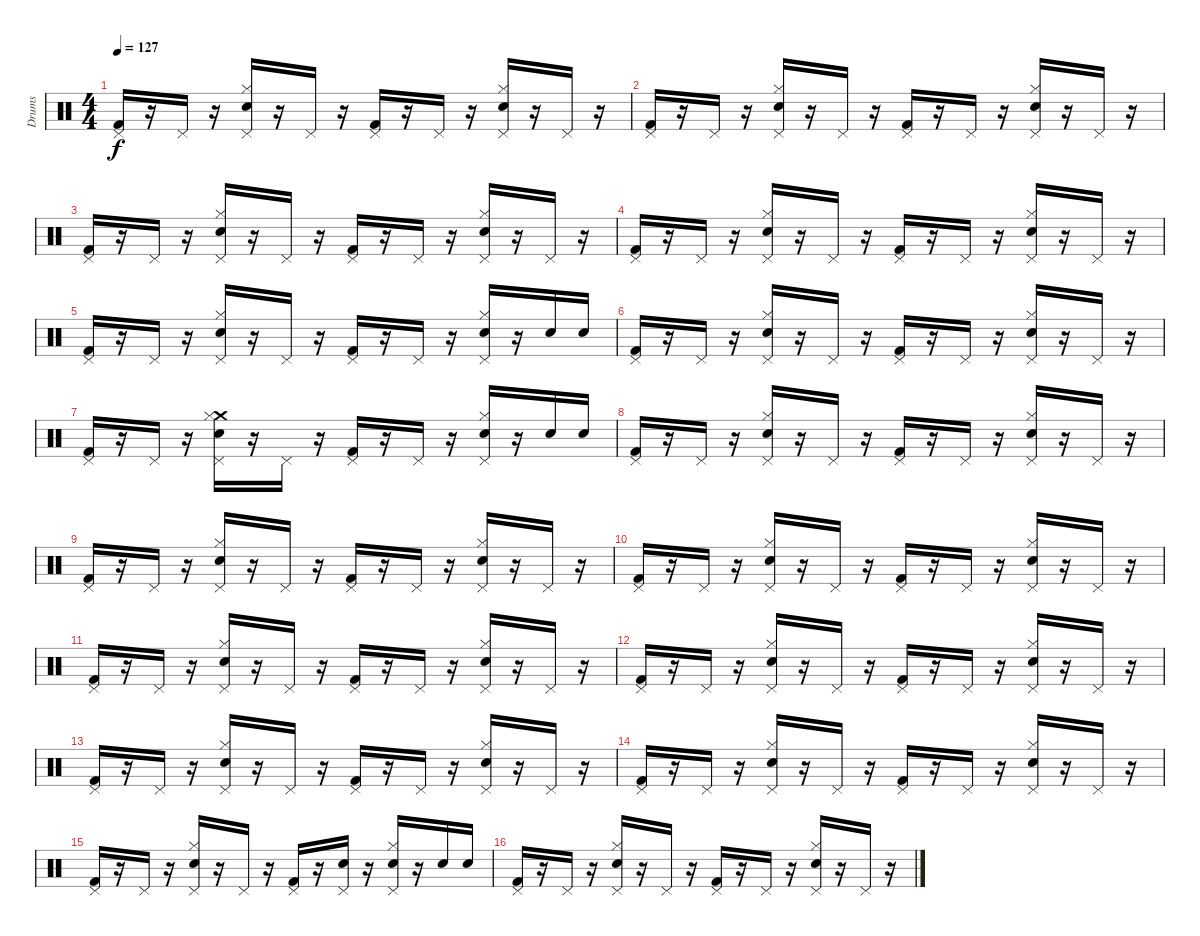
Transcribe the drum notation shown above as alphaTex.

\track ("Drums" "Drums") {instrument percussion}
\staff {score}
\articulation defaults
\ts (4 4)
\tempo 127
\clef neutral
\ks c
("Pedal Hi-Hat (hit)" "Kick (hit) 2").16{dy f} r.16 "Pedal Hi-Hat (hit)".16 r.16 ("Hi-Hat (closed)" "Pedal Hi-Hat (hit)" "Electric Snare (hit)").16 r.16 "Pedal Hi-Hat (hit)".16 r.16 ("Pedal Hi-Hat (hit)" "Kick (hit) 2").16 r.16 "Pedal Hi-Hat (hit)".16 r.16 ("Hi-Hat (closed)" "Pedal Hi-Hat (hit)" "Electric Snare (hit)").16 r.16 "Pedal Hi-Hat (hit)".16 r.16 |
("Pedal Hi-Hat (hit)" "Kick (hit) 2").16 r.16 "Pedal Hi-Hat (hit)".16 r.16 ("Hi-Hat (closed)" "Pedal Hi-Hat (hit)" "Electric Snare (hit)").16 r.16 "Pedal Hi-Hat (hit)".16 r.16 ("Pedal Hi-Hat (hit)" "Kick (hit) 2").16 r.16 "Pedal Hi-Hat (hit)".16 r.16 ("Hi-Hat (closed)" "Pedal Hi-Hat (hit)" "Electric Snare (hit)").16 r.16 "Pedal Hi-Hat (hit)".16 r.16 |
("Pedal Hi-Hat (hit)" "Kick (hit) 2").16 r.16 "Pedal Hi-Hat (hit)".16 r.16 ("Hi-Hat (closed)" "Pedal Hi-Hat (hit)" "Electric Snare (hit)").16 r.16 "Pedal Hi-Hat (hit)".16 r.16 ("Pedal Hi-Hat (hit)" "Kick (hit) 2").16 r.16 "Pedal Hi-Hat (hit)".16 r.16 ("Hi-Hat (closed)" "Pedal Hi-Hat (hit)" "Electric Snare (hit)").16 r.16 "Pedal Hi-Hat (hit)".16 r.16 |
("Pedal Hi-Hat (hit)" "Kick (hit) 2").16 r.16 "Pedal Hi-Hat (hit)".16 r.16 ("Hi-Hat (closed)" "Pedal Hi-Hat (hit)" "Electric Snare (hit)").16 r.16 "Pedal Hi-Hat (hit)".16 r.16 ("Pedal Hi-Hat (hit)" "Kick (hit) 2").16 r.16 "Pedal Hi-Hat (hit)".16 r.16 ("Hi-Hat (closed)" "Pedal Hi-Hat (hit)" "Electric Snare (hit)").16 r.16 "Pedal Hi-Hat (hit)".16 r.16 |
("Pedal Hi-Hat (hit)" "Kick (hit) 2").16 r.16 "Pedal Hi-Hat (hit)".16 r.16 ("Hi-Hat (closed)" "Pedal Hi-Hat (hit)" "Electric Snare (hit)").16 r.16 "Pedal Hi-Hat (hit)".16 r.16 ("Pedal Hi-Hat (hit)" "Kick (hit) 2").16 r.16 "Pedal Hi-Hat (hit)".16 r.16 ("Hi-Hat (closed)" "Pedal Hi-Hat (hit)" "Electric Snare (hit)").16 r.16 "Electric Snare (hit)".16 "Electric Snare (hit)".16 |
("Pedal Hi-Hat (hit)" "Kick (hit) 2").16 r.16 "Pedal Hi-Hat (hit)".16 r.16 ("Hi-Hat (closed)" "Pedal Hi-Hat (hit)" "Electric Snare (hit)").16 r.16 "Pedal Hi-Hat (hit)".16 r.16 ("Pedal Hi-Hat (hit)" "Kick (hit) 2").16 r.16 "Pedal Hi-Hat (hit)".16 r.16 ("Hi-Hat (closed)" "Pedal Hi-Hat (hit)" "Electric Snare (hit)").16 r.16 "Pedal Hi-Hat (hit)".16 r.16 |
("Pedal Hi-Hat (hit)" "Kick (hit) 2").16 r.16 "Pedal Hi-Hat (hit)".16 r.16 ("Crash medium (hit)" "Hi-Hat (closed)" "Pedal Hi-Hat (hit)" "Electric Snare (hit)").16 r.16 "Pedal Hi-Hat (hit)".16 r.16 ("Pedal Hi-Hat (hit)" "Kick (hit) 2").16 r.16 "Pedal Hi-Hat (hit)".16 r.16 ("Hi-Hat (closed)" "Pedal Hi-Hat (hit)" "Electric Snare (hit)").16 r.16 "Electric Snare (hit)".16 "Electric Snare (hit)".16 |
("Pedal Hi-Hat (hit)" "Kick (hit) 2").16 r.16 "Pedal Hi-Hat (hit)".16 r.16 ("Hi-Hat (closed)" "Pedal Hi-Hat (hit)" "Electric Snare (hit)").16 r.16 "Pedal Hi-Hat (hit)".16 r.16 ("Pedal Hi-Hat (hit)" "Kick (hit) 2").16 r.16 "Pedal Hi-Hat (hit)".16 r.16 ("Hi-Hat (closed)" "Pedal Hi-Hat (hit)" "Electric Snare (hit)").16 r.16 "Pedal Hi-Hat (hit)".16 r.16 |
("Pedal Hi-Hat (hit)" "Kick (hit) 2").16 r.16 "Pedal Hi-Hat (hit)".16 r.16 ("Hi-Hat (closed)" "Pedal Hi-Hat (hit)" "Electric Snare (hit)").16 r.16 "Pedal Hi-Hat (hit)".16 r.16 ("Pedal Hi-Hat (hit)" "Kick (hit) 2").16 r.16 "Pedal Hi-Hat (hit)".16 r.16 ("Hi-Hat (closed)" "Pedal Hi-Hat (hit)" "Electric Snare (hit)").16 r.16 "Pedal Hi-Hat (hit)".16 r.16 |
("Pedal Hi-Hat (hit)" "Kick (hit) 2").16 r.16 "Pedal Hi-Hat (hit)".16 r.16 ("Hi-Hat (closed)" "Pedal Hi-Hat (hit)" "Electric Snare (hit)").16 r.16 "Pedal Hi-Hat (hit)".16 r.16 ("Pedal Hi-Hat (hit)" "Kick (hit) 2").16 r.16 "Pedal Hi-Hat (hit)".16 r.16 ("Hi-Hat (closed)" "Pedal Hi-Hat (hit)" "Electric Snare (hit)").16 r.16 "Pedal Hi-Hat (hit)".16 r.16 |
("Pedal Hi-Hat (hit)" "Kick (hit) 2").16 r.16 "Pedal Hi-Hat (hit)".16 r.16 ("Hi-Hat (closed)" "Pedal Hi-Hat (hit)" "Electric Snare (hit)").16 r.16 "Pedal Hi-Hat (hit)".16 r.16 ("Pedal Hi-Hat (hit)" "Kick (hit) 2").16 r.16 "Pedal Hi-Hat (hit)".16 r.16 ("Hi-Hat (closed)" "Pedal Hi-Hat (hit)" "Electric Snare (hit)").16 r.16 "Pedal Hi-Hat (hit)".16 r.16 |
("Pedal Hi-Hat (hit)" "Kick (hit) 2").16 r.16 "Pedal Hi-Hat (hit)".16 r.16 ("Hi-Hat (closed)" "Pedal Hi-Hat (hit)" "Electric Snare (hit)").16 r.16 "Pedal Hi-Hat (hit)".16 r.16 ("Pedal Hi-Hat (hit)" "Kick (hit) 2").16 r.16 "Pedal Hi-Hat (hit)".16 r.16 ("Hi-Hat (closed)" "Pedal Hi-Hat (hit)" "Electric Snare (hit)").16 r.16 "Pedal Hi-Hat (hit)".16 r.16 |
("Pedal Hi-Hat (hit)" "Kick (hit) 2").16 r.16 "Pedal Hi-Hat (hit)".16 r.16 ("Hi-Hat (closed)" "Pedal Hi-Hat (hit)" "Electric Snare (hit)").16 r.16 "Pedal Hi-Hat (hit)".16 r.16 ("Pedal Hi-Hat (hit)" "Kick (hit) 2").16 r.16 "Pedal Hi-Hat (hit)".16 r.16 ("Hi-Hat (closed)" "Pedal Hi-Hat (hit)" "Electric Snare (hit)").16 r.16 "Pedal Hi-Hat (hit)".16 r.16 |
("Pedal Hi-Hat (hit)" "Kick (hit) 2").16 r.16 "Pedal Hi-Hat (hit)".16 r.16 ("Hi-Hat (closed)" "Pedal Hi-Hat (hit)" "Electric Snare (hit)").16 r.16 "Pedal Hi-Hat (hit)".16 r.16 ("Pedal Hi-Hat (hit)" "Kick (hit) 2").16 r.16 "Pedal Hi-Hat (hit)".16 r.16 ("Hi-Hat (closed)" "Pedal Hi-Hat (hit)" "Electric Snare (hit)").16 r.16 "Pedal Hi-Hat (hit)".16 r.16 |
("Pedal Hi-Hat (hit)" "Kick (hit) 2").16 r.16 "Pedal Hi-Hat (hit)".16 r.16 ("Hi-Hat (closed)" "Pedal Hi-Hat (hit)" "Electric Snare (hit)").16 r.16 "Pedal Hi-Hat (hit)".16 r.16 ("Pedal Hi-Hat (hit)" "Kick (hit) 2").16 r.16 ("Pedal Hi-Hat (hit)" "Electric Snare (hit)").16 r.16 ("Hi-Hat (closed)" "Pedal Hi-Hat (hit)" "Electric Snare (hit)").16 r.16 "Electric Snare (hit)".16 "Electric Snare (hit)".16 |
("Pedal Hi-Hat (hit)" "Kick (hit) 2").16 r.16 "Pedal Hi-Hat (hit)".16 r.16 ("Hi-Hat (closed)" "Pedal Hi-Hat (hit)" "Electric Snare (hit)").16 r.16 "Pedal Hi-Hat (hit)".16 r.16 ("Pedal Hi-Hat (hit)" "Kick (hit) 2").16 r.16 "Pedal Hi-Hat (hit)".16 r.16 ("Hi-Hat (closed)" "Pedal Hi-Hat (hit)" "Electric Snare (hit)").16 r.16 "Pedal Hi-Hat (hit)".16 r.16
